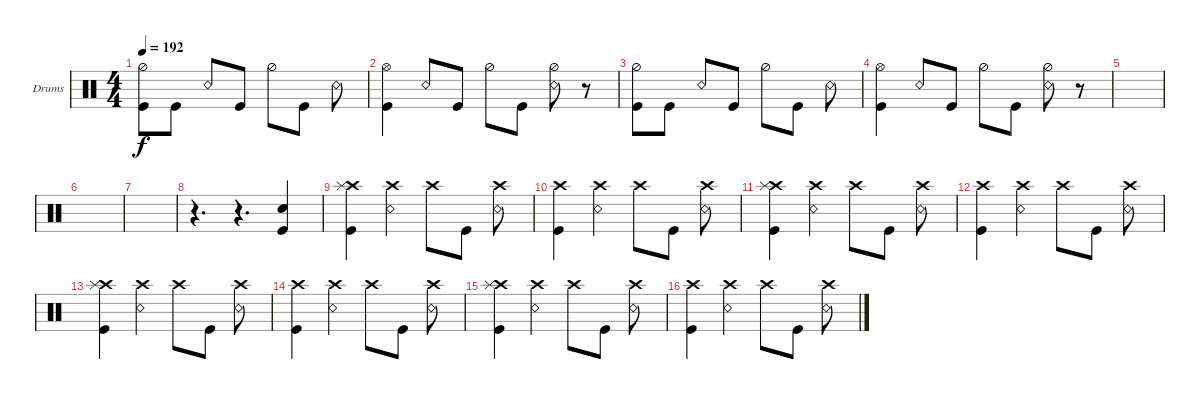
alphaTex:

\defaultSystemsLayout 4
\bracketExtendMode groupsimilarinstruments
\firstSystemTrackNameOrientation horizontal
\otherSystemsTrackNameOrientation horizontal
\track ("Drumkit" "Drums") {instrument percussion}
\staff {score}
\articulation defaults
\ts (4 4)
\tempo 192
\clef neutral
\scale
0.333333
\ks c
("Kick (hit)" "Hi-Hat (half)").8{dy f} "Kick (hit)".8 "Snare (rim shot)".8 "Kick (hit)".8 "Hi-Hat (half)".8 "Kick (hit)".8 "Snare (rim shot)".8 |
\scale
0.333333 ("Kick (hit)" "Hi-Hat (open)").4 "Snare (rim shot)".8 "Kick (hit)".8 "Hi-Hat (half)".8 "Kick (hit)".8 ("Snare (rim shot)" "Hi-Hat (half)").8 r.8 |
\scale
0.333333 ("Kick (hit)" "Hi-Hat (half)").8 "Kick (hit)".8 "Snare (rim shot)".8 "Kick (hit)".8 "Hi-Hat (half)".8 "Kick (hit)".8 "Snare (rim shot)".8 |
\scale
0.333333 ("Kick (hit)" "Hi-Hat (open)").4 "Snare (rim shot)".8 "Kick (hit)".8 "Hi-Hat (half)".8 "Kick (hit)".8 ("Snare (rim shot)" "Hi-Hat (half)").8 r.8 |
\scale
0.333333 |
\scale
0.333333 |
\scale
0.333333 |
\scale
0.333333 r.4{d} r.4{d} ("Snare (hit) 2" "Kick (hit)").4 |
\scale
0.333333 ("Kick (hit)" "Crash high (hit)" "Splash (hit)").4 ("Snare (rim shot)" "Crash high (hit)").4 "Crash high (hit)".8 "Kick (hit)".8 ("Snare (rim shot)" "Crash high (hit)").8 |
\scale
0.333333 ("Kick (hit)" "Crash high (hit)").4 ("Snare (rim shot)" "Crash high (hit)").4 "Crash high (hit)".8 "Kick (hit)".8 ("Snare (rim shot)" "Crash high (hit)").8 |
\scale
0.333333 ("Kick (hit)" "Crash high (hit)" "Splash (hit)").4 ("Snare (rim shot)" "Crash high (hit)").4 "Crash high (hit)".8 "Kick (hit)".8 ("Snare (rim shot)" "Crash high (hit)").8 |
\scale
0.333333 ("Kick (hit)" "Crash high (hit)").4 ("Snare (rim shot)" "Crash high (hit)").4 "Crash high (hit)".8 "Kick (hit)".8 ("Snare (rim shot)" "Crash high (hit)").8 |
\scale
0.333333 ("Kick (hit)" "Crash high (hit)" "Splash (hit)").4 ("Snare (rim shot)" "Crash high (hit)").4 "Crash high (hit)".8 "Kick (hit)".8 ("Snare (rim shot)" "Crash high (hit)").8 |
\scale
0.333333 ("Kick (hit)" "Crash high (hit)").4 ("Snare (rim shot)" "Crash high (hit)").4 "Crash high (hit)".8 "Kick (hit)".8 ("Snare (rim shot)" "Crash high (hit)").8 |
\scale
0.333333 ("Kick (hit)" "Crash high (hit)" "Splash (hit)").4 ("Snare (rim shot)" "Crash high (hit)").4 "Crash high (hit)".8 "Kick (hit)".8 ("Snare (rim shot)" "Crash high (hit)").8 |
\scale
0.333333 ("Kick (hit)" "Crash high (hit)").4 ("Snare (rim shot)" "Crash high (hit)").4 "Crash high (hit)".8 "Kick (hit)".8 ("Snare (rim shot)" "Crash high (hit)").8
